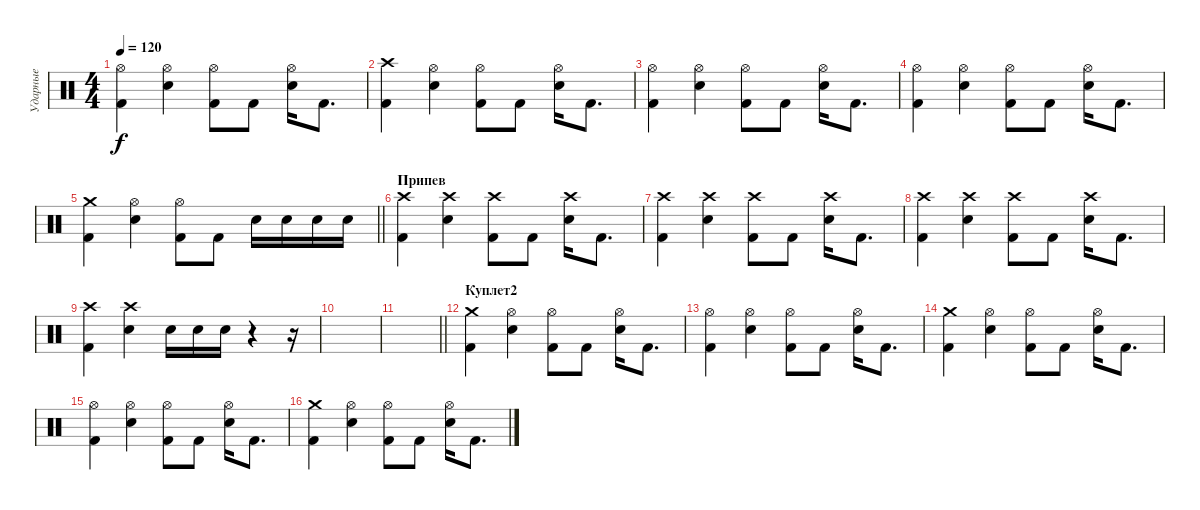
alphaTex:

\track ("Ударные" "Ударные") {instrument percussion}
\staff {score}
\articulation defaults
\ts (4 4)
\tempo 120
\clef neutral
\ks c
("Hi-Hat (open)" "Kick (hit) 2").4{dy f} ("Hi-Hat (open)" "Electric Snare (hit)").4 ("Hi-Hat (open)" "Kick (hit) 2").8 "Kick (hit) 2".8 ("Hi-Hat (open)" "Electric Snare (hit)").16 "Kick (hit) 2".8{d} |
("Crash high (hit)" "Kick (hit) 2").4 ("Hi-Hat (open)" "Electric Snare (hit)").4 ("Hi-Hat (open)" "Kick (hit) 2").8 "Kick (hit) 2".8 ("Hi-Hat (open)" "Electric Snare (hit)").16 "Kick (hit) 2".8{d} |
("Hi-Hat (open)" "Kick (hit) 2").4 ("Hi-Hat (open)" "Electric Snare (hit)").4 ("Hi-Hat (open)" "Kick (hit) 2").8 "Kick (hit) 2".8 ("Hi-Hat (open)" "Electric Snare (hit)").16 "Kick (hit) 2".8{d} |
("Hi-Hat (open)" "Kick (hit) 2").4 ("Hi-Hat (open)" "Electric Snare (hit)").4 ("Hi-Hat (open)" "Kick (hit) 2").8 "Kick (hit) 2".8 ("Hi-Hat (open)" "Electric Snare (hit)").16 "Kick (hit) 2".8{d} |
\barLineRight lightlight
("Crash medium (hit)" "Kick (hit) 2").4 ("Hi-Hat (open)" "Electric Snare (hit)").4 ("Hi-Hat (open)" "Kick (hit) 2").8 "Kick (hit) 2".8 "Electric Snare (hit)".16 "Electric Snare (hit)".16 "Electric Snare (hit)".16 "Electric Snare (hit)".16 |
\section ("" "Припев")
("Crash high (hit)" "Kick (hit) 2").4 ("Crash high (hit)" "Electric Snare (hit)").4 ("Crash high (hit)" "Kick (hit) 2").8 "Kick (hit) 2".8 ("Crash high (hit)" "Electric Snare (hit)").16 "Kick (hit) 2".8{d} |
("Crash high (hit)" "Kick (hit) 2").4 ("Crash high (hit)" "Electric Snare (hit)").4 ("Crash high (hit)" "Kick (hit) 2").8 "Kick (hit) 2".8 ("Crash high (hit)" "Electric Snare (hit)").16 "Kick (hit) 2".8{d} |
("Crash high (hit)" "Kick (hit) 2").4 ("Crash high (hit)" "Electric Snare (hit)").4 ("Crash high (hit)" "Kick (hit) 2").8 "Kick (hit) 2".8 ("Crash high (hit)" "Electric Snare (hit)").16 "Kick (hit) 2".8{d} |
("Crash high (hit)" "Kick (hit) 2").4 ("Crash high (hit)" "Electric Snare (hit)").4 "Electric Snare (hit)".16 "Electric Snare (hit)".16 "Electric Snare (hit)".16 r.4 r.16 |
|
\barLineRight lightlight
|
\section ("" "Куплет2")
("Crash medium (hit)" "Kick (hit) 2").4 ("Hi-Hat (open)" "Electric Snare (hit)").4 ("Hi-Hat (open)" "Kick (hit) 2").8 "Kick (hit) 2".8 ("Hi-Hat (open)" "Electric Snare (hit)").16 "Kick (hit) 2".8{d} |
("Hi-Hat (open)" "Kick (hit) 2").4 ("Hi-Hat (open)" "Electric Snare (hit)").4 ("Hi-Hat (open)" "Kick (hit) 2").8 "Kick (hit) 2".8 ("Hi-Hat (open)" "Electric Snare (hit)").16 "Kick (hit) 2".8{d} |
("Crash medium (hit)" "Kick (hit) 2").4 ("Hi-Hat (open)" "Electric Snare (hit)").4 ("Hi-Hat (open)" "Kick (hit) 2").8 "Kick (hit) 2".8 ("Hi-Hat (open)" "Electric Snare (hit)").16 "Kick (hit) 2".8{d} |
("Hi-Hat (open)" "Kick (hit) 2").4 ("Hi-Hat (open)" "Electric Snare (hit)").4 ("Hi-Hat (open)" "Kick (hit) 2").8 "Kick (hit) 2".8 ("Hi-Hat (open)" "Electric Snare (hit)").16 "Kick (hit) 2".8{d} |
("Crash medium (hit)" "Kick (hit) 2").4 ("Hi-Hat (open)" "Electric Snare (hit)").4 ("Hi-Hat (open)" "Kick (hit) 2").8 "Kick (hit) 2".8 ("Hi-Hat (open)" "Electric Snare (hit)").16 "Kick (hit) 2".8{d}
